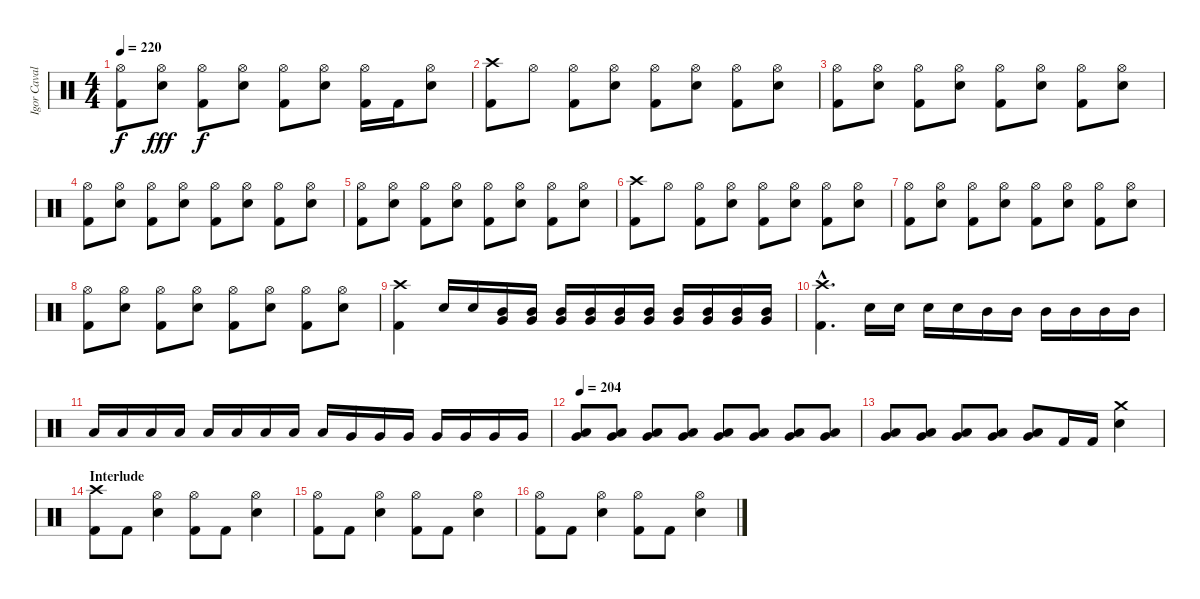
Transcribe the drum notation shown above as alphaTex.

\track ("Igor Cavalera" "Igor Caval") {instrument percussion}
\staff {score}
\articulation defaults
\ts (4 4)
\tempo 220
\clef neutral
\ks c
("Kick (hit) 2" "Hi-Hat (open)").8{dy f} ("Snare (hit) 2" "Hi-Hat (open)").8{dy fff} ("Kick (hit) 2" "Hi-Hat (open)").8{dy f} ("Snare (hit) 2" "Hi-Hat (open)").8 ("Kick (hit) 2" "Hi-Hat (open)").8 ("Snare (hit) 2" "Hi-Hat (open)").8 ("Kick (hit) 2" "Hi-Hat (open)").16 "Kick (hit) 2".16 ("Snare (hit) 2" "Hi-Hat (open)").8 |
("Kick (hit) 2" "Crash high (hit)").8 "Hi-Hat (open)".8 ("Kick (hit) 2" "Hi-Hat (open)").8 ("Snare (hit) 2" "Hi-Hat (open)").8 ("Kick (hit) 2" "Hi-Hat (open)").8 ("Snare (hit) 2" "Hi-Hat (open)").8 ("Kick (hit) 2" "Hi-Hat (open)").8 ("Snare (hit) 2" "Hi-Hat (open)").8 |
("Kick (hit) 2" "Hi-Hat (open)").8 ("Snare (hit) 2" "Hi-Hat (open)").8 ("Kick (hit) 2" "Hi-Hat (open)").8 ("Snare (hit) 2" "Hi-Hat (open)").8 ("Kick (hit) 2" "Hi-Hat (open)").8 ("Snare (hit) 2" "Hi-Hat (open)").8 ("Kick (hit) 2" "Hi-Hat (open)").8 ("Snare (hit) 2" "Hi-Hat (open)").8 |
("Kick (hit) 2" "Hi-Hat (open)").8 ("Snare (hit) 2" "Hi-Hat (open)").8 ("Kick (hit) 2" "Hi-Hat (open)").8 ("Snare (hit) 2" "Hi-Hat (open)").8 ("Kick (hit) 2" "Hi-Hat (open)").8 ("Snare (hit) 2" "Hi-Hat (open)").8 ("Kick (hit) 2" "Hi-Hat (open)").8 ("Snare (hit) 2" "Hi-Hat (open)").8 |
("Kick (hit) 2" "Hi-Hat (open)").8 ("Snare (hit) 2" "Hi-Hat (open)").8 ("Kick (hit) 2" "Hi-Hat (open)").8 ("Snare (hit) 2" "Hi-Hat (open)").8 ("Kick (hit) 2" "Hi-Hat (open)").8 ("Snare (hit) 2" "Hi-Hat (open)").8 ("Kick (hit) 2" "Hi-Hat (open)").8 ("Snare (hit) 2" "Hi-Hat (open)").8 |
("Kick (hit) 2" "Crash high (hit)").8 "Hi-Hat (open)".8 ("Kick (hit) 2" "Hi-Hat (open)").8 ("Snare (hit) 2" "Hi-Hat (open)").8 ("Kick (hit) 2" "Hi-Hat (open)").8 ("Snare (hit) 2" "Hi-Hat (open)").8 ("Kick (hit) 2" "Hi-Hat (open)").8 ("Snare (hit) 2" "Hi-Hat (open)").8 |
("Kick (hit) 2" "Hi-Hat (open)").8 ("Snare (hit) 2" "Hi-Hat (open)").8 ("Kick (hit) 2" "Hi-Hat (open)").8 ("Snare (hit) 2" "Hi-Hat (open)").8 ("Kick (hit) 2" "Hi-Hat (open)").8 ("Snare (hit) 2" "Hi-Hat (open)").8 ("Kick (hit) 2" "Hi-Hat (open)").8 ("Snare (hit) 2" "Hi-Hat (open)").8 |
("Kick (hit) 2" "Hi-Hat (open)").8 ("Snare (hit) 2" "Hi-Hat (open)").8 ("Kick (hit) 2" "Hi-Hat (open)").8 ("Snare (hit) 2" "Hi-Hat (open)").8 ("Kick (hit) 2" "Hi-Hat (open)").8 ("Snare (hit) 2" "Hi-Hat (open)").8 ("Kick (hit) 2" "Hi-Hat (open)").8 ("Snare (hit) 2" "Hi-Hat (open)").8 |
("Kick (hit) 2" "Crash high (hit)").4 "Snare (hit) 2".16 "Snare (hit) 2".16 ("Mid Tom (hit)" "Very Low Tom (hit)").16 ("Mid Tom (hit)" "Very Low Tom (hit)").16 ("Mid Tom (hit)" "Very Low Tom (hit)").16 ("Mid Tom (hit)" "Very Low Tom (hit)").16 ("Mid Tom (hit)" "Very Low Tom (hit)").16 ("Mid Tom (hit)" "Very Low Tom (hit)").16 ("Mid Tom (hit)" "Very Low Tom (hit)").16 ("Mid Tom (hit)" "Very Low Tom (hit)").16 ("Mid Tom (hit)" "Very Low Tom (hit)").16 ("Mid Tom (hit)" "Very Low Tom (hit)").16 |
("Kick (hit) 2"{hac} "Crash high (hit)"{hac}).4{d} "Snare (hit) 2".16 "Snare (hit) 2".16 "Snare (hit) 2".16 "Snare (hit) 2".16 "Mid Tom (hit)".16 "Mid Tom (hit)".16 "Mid Tom (hit)".16 "Mid Tom (hit)".16 "Mid Tom (hit)".16 "Mid Tom (hit)".16 |
"Low Tom (hit)".16 "Low Tom (hit)".16 "Low Tom (hit)".16 "Low Tom (hit)".16 "Low Tom (hit)".16 "Low Tom (hit)".16 "Low Tom (hit)".16 "Low Tom (hit)".16 "Low Tom (hit)".16 "Very Low Tom (hit)".16 "Very Low Tom (hit)".16 "Very Low Tom (hit)".16 "Very Low Tom (hit)".16 "Very Low Tom (hit)".16 "Very Low Tom (hit)".16 "Very Low Tom (hit)".16 |
\tempo 204
("Low Tom (hit)" "Very Low Tom (hit)").8 ("Low Tom (hit)" "Very Low Tom (hit)").8 ("Low Tom (hit)" "Very Low Tom (hit)").8 ("Low Tom (hit)" "Very Low Tom (hit)").8 ("Low Tom (hit)" "Very Low Tom (hit)").8 ("Low Tom (hit)" "Very Low Tom (hit)").8 ("Low Tom (hit)" "Very Low Tom (hit)").8 ("Low Tom (hit)" "Very Low Tom (hit)").8 |
("Low Tom (hit)" "Very Low Tom (hit)").8 ("Low Tom (hit)" "Very Low Tom (hit)").8 ("Low Tom (hit)" "Very Low Tom (hit)").8 ("Low Tom (hit)" "Very Low Tom (hit)").8 ("Low Tom (hit)" "Very Low Tom (hit)").8 "Kick (hit) 2".16 "Kick (hit) 2".16 ("Snare (hit) 2" "Crash medium (hit)").4 |
\section ("" "Interlude")
("Kick (hit) 2" "Crash high (hit)").8 "Kick (hit) 2".8 ("Snare (hit) 2" "Hi-Hat (open)").4 ("Kick (hit) 2" "Hi-Hat (open)").8 "Kick (hit) 2".8 ("Snare (hit) 2" "Hi-Hat (open)").4 |
("Kick (hit) 2" "Hi-Hat (open)").8 "Kick (hit) 2".8 ("Snare (hit) 2" "Hi-Hat (open)").4 ("Kick (hit) 2" "Hi-Hat (open)").8 "Kick (hit) 2".8 ("Snare (hit) 2" "Hi-Hat (open)").4 |
("Kick (hit) 2" "Hi-Hat (open)").8 "Kick (hit) 2".8 ("Snare (hit) 2" "Hi-Hat (open)").4 ("Kick (hit) 2" "Hi-Hat (open)").8 "Kick (hit) 2".8 ("Snare (hit) 2" "Hi-Hat (open)").4
